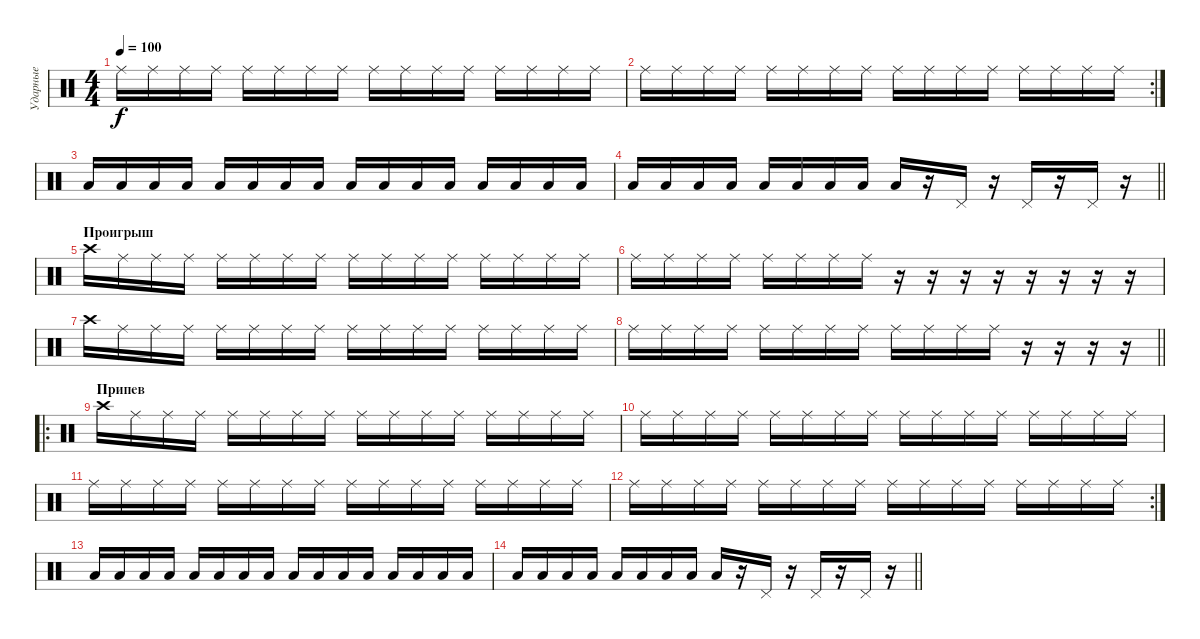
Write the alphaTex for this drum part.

\track ("Ударные" "Ударные") {instrument percussion}
\staff {score}
\articulation defaults
\ts (4 4)
\tempo 100
\clef neutral
\ks c "Ride (middle)".16{dy f} "Ride (middle)".16 "Ride (middle)".16 "Ride (middle)".16 "Ride (middle)".16 "Ride (middle)".16 "Ride (middle)".16 "Ride (middle)".16 "Ride (middle)".16 "Ride (middle)".16 "Ride (middle)".16 "Ride (middle)".16 "Ride (middle)".16 "Ride (middle)".16 "Ride (middle)".16 "Ride (middle)".16
|
\rc 2 "Ride (middle)".16 "Ride (middle)".16 "Ride (middle)".16 "Ride (middle)".16 "Ride (middle)".16 "Ride (middle)".16 "Ride (middle)".16 "Ride (middle)".16 "Ride (middle)".16 "Ride (middle)".16 "Ride (middle)".16 "Ride (middle)".16 "Ride (middle)".16 "Ride (middle)".16 "Ride (middle)".16 "Ride (middle)".16
|
"Low Floor Tom (hit)".16 "Low Floor Tom (hit)".16 "Low Floor Tom (hit)".16 "Low Floor Tom (hit)".16 "Low Floor Tom (hit)".16 "Low Floor Tom (hit)".16 "Low Floor Tom (hit)".16 "Low Floor Tom (hit)".16 "Low Floor Tom (hit)".16 "Low Floor Tom (hit)".16 "Low Floor Tom (hit)".16 "Low Floor Tom (hit)".16 "Low Floor Tom (hit)".16 "Low Floor Tom (hit)".16 "Low Floor Tom (hit)".16 "Low Floor Tom (hit)".16 |
\barLineRight lightlight "Low Floor Tom (hit)".16 "Low Floor Tom (hit)".16 "Low Floor Tom (hit)".16 "Low Floor Tom (hit)".16 "Low Floor Tom (hit)".16 "Low Floor Tom (hit)".16 "Low Floor Tom (hit)".16 "Low Floor Tom (hit)".16 "Low Floor Tom (hit)".16
r.16 "Pedal Hi-Hat (hit)".16 r.16 "Pedal Hi-Hat (hit)".16 r.16 "Pedal Hi-Hat (hit)".16 r.16 |
\section ("" "Проигрыш")
"Crash high (hit)".16 "Ride (middle)".16 "Ride (middle)".16 "Ride (middle)".16 "Ride (middle)".16 "Ride (middle)".16 "Ride (middle)".16 "Ride (middle)".16 "Ride (middle)".16 "Ride (middle)".16 "Ride (middle)".16 "Ride (middle)".16 "Ride (middle)".16 "Ride (middle)".16 "Ride (middle)".16 "Ride (middle)".16 |
"Ride (middle)".16 "Ride (middle)".16 "Ride (middle)".16 "Ride (middle)".16 "Ride (middle)".16 "Ride (middle)".16 "Ride (middle)".16 "Ride (middle)".16 r.16 r.16 r.16 r.16 r.16 r.16 r.16 r.16 |
"Crash high (hit)".16 "Ride (middle)".16 "Ride (middle)".16 "Ride (middle)".16 "Ride (middle)".16 "Ride (middle)".16 "Ride (middle)".16 "Ride (middle)".16 "Ride (middle)".16 "Ride (middle)".16 "Ride (middle)".16 "Ride (middle)".16 "Ride (middle)".16 "Ride (middle)".16 "Ride (middle)".16 "Ride (middle)".16 |
\barLineRight lightlight "Ride (middle)".16 "Ride (middle)".16 "Ride (middle)".16 "Ride (middle)".16 "Ride (middle)".16 "Ride (middle)".16 "Ride (middle)".16 "Ride (middle)".16 "Ride (middle)".16 "Ride (middle)".16 "Ride (middle)".16 "Ride (middle)".16
r.16 r.16 r.16 r.16 |
\ro
\section ("" "Припев")
"Crash high (hit)".16 "Ride (middle)".16 "Ride (middle)".16 "Ride (middle)".16 "Ride (middle)".16 "Ride (middle)".16 "Ride (middle)".16 "Ride (middle)".16 "Ride (middle)".16 "Ride (middle)".16 "Ride (middle)".16 "Ride (middle)".16 "Ride (middle)".16 "Ride (middle)".16 "Ride (middle)".16 "Ride (middle)".16 |
"Ride (middle)".16 "Ride (middle)".16 "Ride (middle)".16 "Ride (middle)".16 "Ride (middle)".16 "Ride (middle)".16 "Ride (middle)".16 "Ride (middle)".16 "Ride (middle)".16 "Ride (middle)".16 "Ride (middle)".16 "Ride (middle)".16 "Ride (middle)".16 "Ride (middle)".16 "Ride (middle)".16 "Ride (middle)".16 |
"Ride (middle)".16 "Ride (middle)".16 "Ride (middle)".16 "Ride (middle)".16 "Ride (middle)".16 "Ride (middle)".16 "Ride (middle)".16 "Ride (middle)".16 "Ride (middle)".16 "Ride (middle)".16 "Ride (middle)".16 "Ride (middle)".16 "Ride (middle)".16 "Ride (middle)".16 "Ride (middle)".16 "Ride (middle)".16 |
\rc 2 "Ride (middle)".16 "Ride (middle)".16 "Ride (middle)".16 "Ride (middle)".16 "Ride (middle)".16 "Ride (middle)".16 "Ride (middle)".16 "Ride (middle)".16 "Ride (middle)".16 "Ride (middle)".16 "Ride (middle)".16 "Ride (middle)".16 "Ride (middle)".16 "Ride (middle)".16 "Ride (middle)".16 "Ride (middle)".16
|
"Low Floor Tom (hit)".16 "Low Floor Tom (hit)".16 "Low Floor Tom (hit)".16 "Low Floor Tom (hit)".16 "Low Floor Tom (hit)".16 "Low Floor Tom (hit)".16 "Low Floor Tom (hit)".16 "Low Floor Tom (hit)".16 "Low Floor Tom (hit)".16 "Low Floor Tom (hit)".16 "Low Floor Tom (hit)".16 "Low Floor Tom (hit)".16 "Low Floor Tom (hit)".16 "Low Floor Tom (hit)".16 "Low Floor Tom (hit)".16 "Low Floor Tom (hit)".16 |
\barLineRight lightlight "Low Floor Tom (hit)".16 "Low Floor Tom (hit)".16 "Low Floor Tom (hit)".16 "Low Floor Tom (hit)".16 "Low Floor Tom (hit)".16 "Low Floor Tom (hit)".16 "Low Floor Tom (hit)".16 "Low Floor Tom (hit)".16 "Low Floor Tom (hit)".16
r.16 "Pedal Hi-Hat (hit)".16 r.16 "Pedal Hi-Hat (hit)".16 r.16 "Pedal Hi-Hat (hit)".16 r.16
